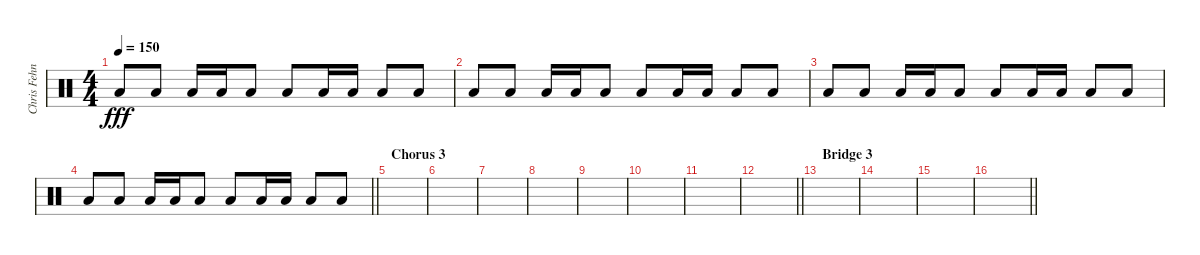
\track ("Chris Fehn" "Chris Fehn") {instrument percussion}
\staff {score}
\articulation defaults
\ts (4 4)
\tempo 150
\clef neutral
\ks c "Low Floor Tom (hit)".8{dy fff} "Low Floor Tom (hit)".8 "Low Floor Tom (hit)".16 "Low Floor Tom (hit)".16 "Low Floor Tom (hit)".8 "Low Floor Tom (hit)".8 "Low Floor Tom (hit)".16 "Low Floor Tom (hit)".16 "Low Floor Tom (hit)".8 "Low Floor Tom (hit)".8
|
"Low Floor Tom (hit)".8 "Low Floor Tom (hit)".8 "Low Floor Tom (hit)".16 "Low Floor Tom (hit)".16 "Low Floor Tom (hit)".8 "Low Floor Tom (hit)".8 "Low Floor Tom (hit)".16 "Low Floor Tom (hit)".16 "Low Floor Tom (hit)".8 "Low Floor Tom (hit)".8 |
"Low Floor Tom (hit)".8 "Low Floor Tom (hit)".8 "Low Floor Tom (hit)".16 "Low Floor Tom (hit)".16 "Low Floor Tom (hit)".8 "Low Floor Tom (hit)".8 "Low Floor Tom (hit)".16 "Low Floor Tom (hit)".16 "Low Floor Tom (hit)".8 "Low Floor Tom (hit)".8 |
\barLineRight lightlight "Low Floor Tom (hit)".8 "Low Floor Tom (hit)".8 "Low Floor Tom (hit)".16 "Low Floor Tom (hit)".16 "Low Floor Tom (hit)".8 "Low Floor Tom (hit)".8 "Low Floor Tom (hit)".16 "Low Floor Tom (hit)".16 "Low Floor Tom (hit)".8 "Low Floor Tom (hit)".8
|
\section ("" "Chorus 3")
|
|
|
|
|
|
|
\barLineRight lightlight
|
\section ("" "Bridge 3")
|
|
|
\barLineRight lightlight
